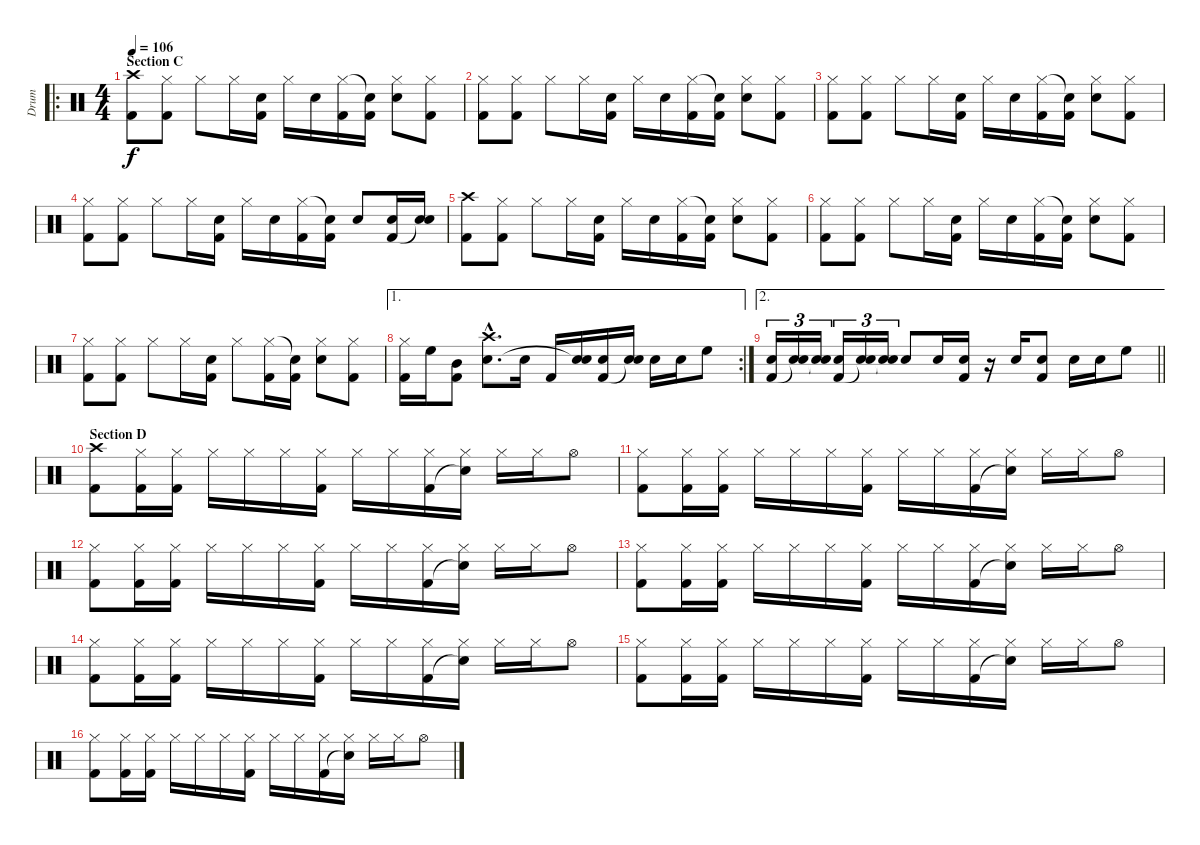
\track ("Drum" "Drum") {instrument percussion}
\staff {score}
\articulation defaults
\ro
\ts (4 4)
\section ("" "Section C")
\tempo 106
\clef neutral
\ks c
("Crash high (hit)" "Kick (hit) 2").8{dy f} ("Hi-Hat (closed)" "Kick (hit) 2").8 "Hi-Hat (closed)".8 "Hi-Hat (closed)".16 ("Snare (hit) 2" "Kick (hit) 2").16 "Hi-Hat (closed)".16 "Snare (hit) 2".16 ("Hi-Hat (closed)" "Kick (hit) 2").16 ("Snare (hit)"{t} "Kick (hit) 2").16 ("Hi-Hat (closed)" "Snare (hit) 2").8 ("Hi-Hat (closed)" "Kick (hit) 2").8 |
("Hi-Hat (closed)" "Kick (hit) 2").8 ("Hi-Hat (closed)" "Kick (hit) 2").8 "Hi-Hat (closed)".8 "Hi-Hat (closed)".16 ("Snare (hit) 2" "Kick (hit) 2").16 "Hi-Hat (closed)".16 "Snare (hit) 2".16 ("Hi-Hat (closed)" "Kick (hit) 2").16 ("Snare (hit)"{t} "Kick (hit) 2").16 ("Hi-Hat (closed)" "Snare (hit) 2").8 ("Hi-Hat (closed)" "Kick (hit) 2").8 |
("Hi-Hat (closed)" "Kick (hit) 2").8 ("Hi-Hat (closed)" "Kick (hit) 2").8 "Hi-Hat (closed)".8 "Hi-Hat (closed)".16 ("Snare (hit) 2" "Kick (hit) 2").16 "Hi-Hat (closed)".16 "Snare (hit) 2".16 ("Hi-Hat (closed)" "Kick (hit) 2").16 ("Snare (hit)"{t} "Kick (hit) 2").16 ("Hi-Hat (closed)" "Snare (hit) 2").8 ("Hi-Hat (closed)" "Kick (hit) 2").8 |
("Hi-Hat (closed)" "Kick (hit) 2").8 ("Hi-Hat (closed)" "Kick (hit) 2").8 "Hi-Hat (closed)".8 "Hi-Hat (closed)".16 ("Snare (hit) 2" "Kick (hit) 2").16 "Hi-Hat (closed)".16 "Snare (hit) 2".16 ("Hi-Hat (closed)" "Kick (hit) 2").16 ("Snare (hit)"{t} "Kick (hit) 2").16 "Snare (hit) 2".8 ("Snare (hit) 2" "Kick (hit) 2").16 ("Snare (hit) 2" "Snare (hit)"{t}).16 |
("Crash high (hit)" "Kick (hit) 2").8 ("Hi-Hat (closed)" "Kick (hit) 2").8 "Hi-Hat (closed)".8 "Hi-Hat (closed)".16 ("Snare (hit) 2" "Kick (hit) 2").16 "Hi-Hat (closed)".16 "Snare (hit) 2".16 ("Hi-Hat (closed)" "Kick (hit) 2").16 ("Snare (hit)"{t} "Kick (hit) 2").16 ("Hi-Hat (closed)" "Snare (hit) 2").8 ("Hi-Hat (closed)" "Kick (hit) 2").8 |
("Hi-Hat (closed)" "Kick (hit) 2").8 ("Hi-Hat (closed)" "Kick (hit) 2").8 "Hi-Hat (closed)".8 "Hi-Hat (closed)".16 ("Snare (hit) 2" "Kick (hit) 2").16 "Hi-Hat (closed)".16 "Snare (hit) 2".16 ("Hi-Hat (closed)" "Kick (hit) 2").16 ("Snare (hit)"{t} "Kick (hit) 2").16 ("Hi-Hat (closed)" "Snare (hit) 2").8 ("Hi-Hat (closed)" "Kick (hit) 2").8 |
("Hi-Hat (closed)" "Kick (hit) 2").8 ("Hi-Hat (closed)" "Kick (hit) 2").8 "Hi-Hat (closed)".8 "Hi-Hat (closed)".16 ("Snare (hit) 2" "Kick (hit) 2").16 "Hi-Hat (closed)".8 ("Hi-Hat (closed)" "Kick (hit) 2").16 ("Snare (hit)"{t} "Kick (hit) 2").16 ("Hi-Hat (closed)" "Snare (hit) 2").8 ("Hi-Hat (closed)" "Kick (hit) 2").8 |
\ae 1
\rc 2
("Hi-Hat (closed)" "Kick (hit) 2").16 "High Floor Tom (hit)".16 ("Mid Tom (hit)" "Kick (hit) 2").8 ("Crash high (hit)"{hac} "Snare (hit) 2"{hac}).8{d} "Snare (hit) 2".16 "Kick (hit) 2".16 ("Snare (hit) 2" "Snare (hit)"{t}).16 ("Snare (hit) 2" "Kick (hit) 2").16 ("Snare (hit) 2" "Snare (hit)"{t}).16 "Snare (hit) 2".16 "Snare (hit) 2".16 "High Floor Tom (hit)".8 |
\ae 2
\barLineRight lightlight
("Snare (hit) 2" "Kick (hit) 2").16{tu (3 2)} ("Snare (hit) 2" "Snare (hit)"{t}).16{tu (3 2)} ("Snare (hit) 2" "Snare (hit)"{t}).16{tu (3 2)} ("Snare (hit) 2" "Kick (hit) 2").16{tu (3 2)} ("Snare (hit) 2" "Snare (hit)"{t}).16{tu (3 2)} ("Snare (hit) 2" "Snare (hit)"{t}).16{tu (3 2)} "Snare (hit) 2".8 "Snare (hit) 2".16 ("Snare (hit) 2" "Kick (hit) 2").16 r.16 "Snare (hit) 2".16 ("Snare (hit) 2" "Kick (hit) 2").8 "Snare (hit) 2".16 "Snare (hit) 2".16 "High Floor Tom (hit)".8 |
\section ("" "Section D")
("Crash high (hit)" "Kick (hit) 2").8 ("Hi-Hat (closed)" "Kick (hit) 2").16 ("Hi-Hat (closed)" "Kick (hit) 2").16 "Hi-Hat (closed)".16 "Hi-Hat (closed)".16 "Hi-Hat (closed)".16 ("Hi-Hat (closed)" "Kick (hit) 2").16 "Hi-Hat (closed)".16 "Hi-Hat (closed)".16 ("Hi-Hat (closed)" "Kick (hit) 2").16 ("Hi-Hat (closed)" "Snare (hit)"{t}).16 "Hi-Hat (closed)".16 "Hi-Hat (closed)".16 "Hi-Hat (open)".8 |
("Hi-Hat (closed)" "Kick (hit) 2").8 ("Hi-Hat (closed)" "Kick (hit) 2").16 ("Hi-Hat (closed)" "Kick (hit) 2").16 "Hi-Hat (closed)".16 "Hi-Hat (closed)".16 "Hi-Hat (closed)".16 ("Hi-Hat (closed)" "Kick (hit) 2").16 "Hi-Hat (closed)".16 "Hi-Hat (closed)".16 ("Hi-Hat (closed)" "Kick (hit) 2").16 ("Hi-Hat (closed)" "Snare (hit)"{t}).16 "Hi-Hat (closed)".16 "Hi-Hat (closed)".16 "Hi-Hat (open)".8 |
("Hi-Hat (closed)" "Kick (hit) 2").8 ("Hi-Hat (closed)" "Kick (hit) 2").16 ("Hi-Hat (closed)" "Kick (hit) 2").16 "Hi-Hat (closed)".16 "Hi-Hat (closed)".16 "Hi-Hat (closed)".16 ("Hi-Hat (closed)" "Kick (hit) 2").16 "Hi-Hat (closed)".16 "Hi-Hat (closed)".16 ("Hi-Hat (closed)" "Kick (hit) 2").16 ("Hi-Hat (closed)" "Snare (hit)"{t}).16 "Hi-Hat (closed)".16 "Hi-Hat (closed)".16 "Hi-Hat (open)".8 |
("Hi-Hat (closed)" "Kick (hit) 2").8 ("Hi-Hat (closed)" "Kick (hit) 2").16 ("Hi-Hat (closed)" "Kick (hit) 2").16 "Hi-Hat (closed)".16 "Hi-Hat (closed)".16 "Hi-Hat (closed)".16 ("Hi-Hat (closed)" "Kick (hit) 2").16 "Hi-Hat (closed)".16 "Hi-Hat (closed)".16 ("Hi-Hat (closed)" "Kick (hit) 2").16 ("Hi-Hat (closed)" "Snare (hit)"{t}).16 "Hi-Hat (closed)".16 "Hi-Hat (closed)".16 "Hi-Hat (open)".8 |
("Hi-Hat (closed)" "Kick (hit) 2").8 ("Hi-Hat (closed)" "Kick (hit) 2").16 ("Hi-Hat (closed)" "Kick (hit) 2").16 "Hi-Hat (closed)".16 "Hi-Hat (closed)".16 "Hi-Hat (closed)".16 ("Hi-Hat (closed)" "Kick (hit) 2").16 "Hi-Hat (closed)".16 "Hi-Hat (closed)".16 ("Hi-Hat (closed)" "Kick (hit) 2").16 ("Hi-Hat (closed)" "Snare (hit)"{t}).16 "Hi-Hat (closed)".16 "Hi-Hat (closed)".16 "Hi-Hat (open)".8 |
("Hi-Hat (closed)" "Kick (hit) 2").8 ("Hi-Hat (closed)" "Kick (hit) 2").16 ("Hi-Hat (closed)" "Kick (hit) 2").16 "Hi-Hat (closed)".16 "Hi-Hat (closed)".16 "Hi-Hat (closed)".16 ("Hi-Hat (closed)" "Kick (hit) 2").16 "Hi-Hat (closed)".16 "Hi-Hat (closed)".16 ("Hi-Hat (closed)" "Kick (hit) 2").16 ("Hi-Hat (closed)" "Snare (hit)"{t}).16 "Hi-Hat (closed)".16 "Hi-Hat (closed)".16 "Hi-Hat (open)".8 |
("Hi-Hat (closed)" "Kick (hit) 2").8 ("Hi-Hat (closed)" "Kick (hit) 2").16 ("Hi-Hat (closed)" "Kick (hit) 2").16 "Hi-Hat (closed)".16 "Hi-Hat (closed)".16 "Hi-Hat (closed)".16 ("Hi-Hat (closed)" "Kick (hit) 2").16 "Hi-Hat (closed)".16 "Hi-Hat (closed)".16 ("Hi-Hat (closed)" "Kick (hit) 2").16 ("Hi-Hat (closed)" "Snare (hit)"{t}).16 "Hi-Hat (closed)".16 "Hi-Hat (closed)".16 "Hi-Hat (open)".8
